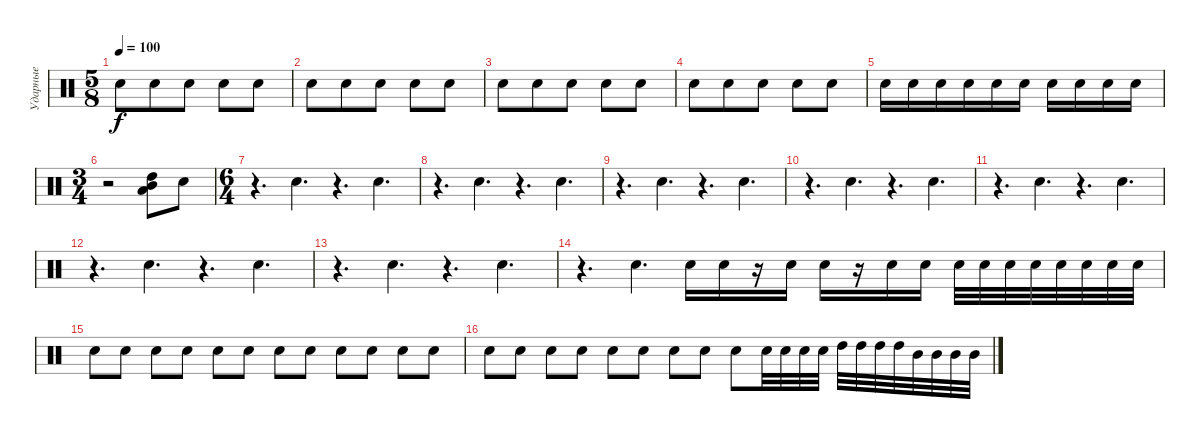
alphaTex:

\track ("Ударные" "Ударные") {instrument percussion}
\staff {score}
\articulation defaults
\ts (5 8)
\tempo 100
\clef neutral
\ks c "Electric Snare (hit)".8{dy f} "Electric Snare (hit)".8 "Electric Snare (hit)".8 "Electric Snare (hit)".8 "Electric Snare (hit)".8
|
"Electric Snare (hit)".8 "Electric Snare (hit)".8 "Electric Snare (hit)".8 "Electric Snare (hit)".8 "Electric Snare (hit)".8 |
"Electric Snare (hit)".8 "Electric Snare (hit)".8 "Electric Snare (hit)".8 "Electric Snare (hit)".8 "Electric Snare (hit)".8 |
"Electric Snare (hit)".8 "Electric Snare (hit)".8 "Electric Snare (hit)".8 "Electric Snare (hit)".8 "Electric Snare (hit)".8 |
"Electric Snare (hit)".16 "Electric Snare (hit)".16 "Electric Snare (hit)".16 "Electric Snare (hit)".16 "Electric Snare (hit)".16 "Electric Snare (hit)".16 "Electric Snare (hit)".16 "Electric Snare (hit)".16 "Electric Snare (hit)".16 "Electric Snare (hit)".16 |
\ts (3 4)
r.2 ("High Tom (hit)" "Low Tom (hit)" "Mid Tom (hit)").8 "Electric Snare (hit)".8 |
\ts (6 4)
r.4{d} "Electric Snare (hit)".4{d} r.4{d} "Electric Snare (hit)".4{d} |
r.4{d} "Electric Snare (hit)".4{d} r.4{d} "Electric Snare (hit)".4{d} |
r.4{d} "Electric Snare (hit)".4{d} r.4{d} "Electric Snare (hit)".4{d} |
r.4{d} "Electric Snare (hit)".4{d} r.4{d} "Electric Snare (hit)".4{d} |
r.4{d} "Electric Snare (hit)".4{d} r.4{d} "Electric Snare (hit)".4{d} |
r.4{d} "Electric Snare (hit)".4{d} r.4{d} "Electric Snare (hit)".4{d} |
r.4{d} "Electric Snare (hit)".4{d} r.4{d} "Electric Snare (hit)".4{d} |
r.4{d} "Electric Snare (hit)".4{d} "Electric Snare (hit)".16 "Electric Snare (hit)".16 r.16 "Electric Snare (hit)".16 "Electric Snare (hit)".16 r.16 "Electric Snare (hit)".16 "Electric Snare (hit)".16 "Electric Snare (hit)".32 "Electric Snare (hit)".32 "Electric Snare (hit)".32 "Electric Snare (hit)".32 "Electric Snare (hit)".32 "Electric Snare (hit)".32 "Electric Snare (hit)".32 "Electric Snare (hit)".32 |
"Electric Snare (hit)".8 "Electric Snare (hit)".8 "Electric Snare (hit)".8 "Electric Snare (hit)".8 "Electric Snare (hit)".8 "Electric Snare (hit)".8 "Electric Snare (hit)".8 "Electric Snare (hit)".8 "Electric Snare (hit)".8 "Electric Snare (hit)".8 "Electric Snare (hit)".8 "Electric Snare (hit)".8 |
"Electric Snare (hit)".8 "Electric Snare (hit)".8 "Electric Snare (hit)".8 "Electric Snare (hit)".8 "Electric Snare (hit)".8 "Electric Snare (hit)".8 "Electric Snare (hit)".8 "Electric Snare (hit)".8 "Electric Snare (hit)".8 "Electric Snare (hit)".32 "Electric Snare (hit)".32 "Electric Snare (hit)".32 "Electric Snare (hit)".32 "High Tom (hit)".32 "High Tom (hit)".32 "High Tom (hit)".32 "High Tom (hit)".32 "Mid Tom (hit)".32 "Mid Tom (hit)".32 "Mid Tom (hit)".32 "Mid Tom (hit)".32
